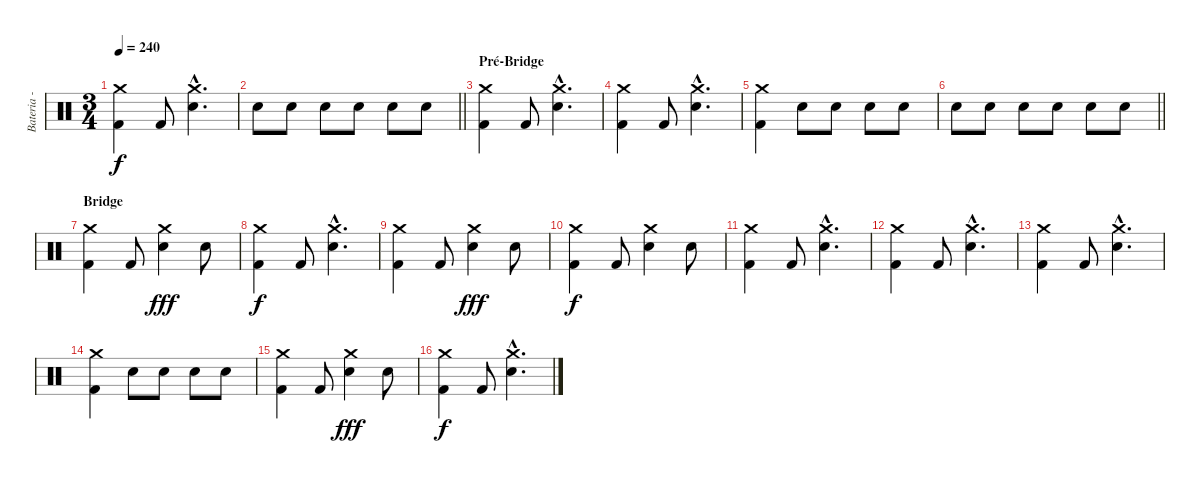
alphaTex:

\track ("Bateria - Larzon" "Bateria - ") {instrument percussion}
\staff {score}
\articulation defaults
\ts (3 4)
\tempo 240
\clef neutral
\ks c
("Kick (hit) 2" "Crash medium (hit)").4{dy f} "Kick (hit) 2".8 ("Snare (hit) 2"{hac} "Crash medium (hit)"{hac}).4{d} |
\barLineRight lightlight "Snare (hit) 2".8 "Snare (hit) 2".8 "Snare (hit) 2".8 "Snare (hit) 2".8 "Snare (hit) 2".8 "Snare (hit) 2".8
|
\section ("" "Pré-Bridge")
("Kick (hit) 2" "Crash medium (hit)").4 "Kick (hit) 2".8 ("Snare (hit) 2"{hac} "Crash medium (hit)"{hac}).4{d} |
("Kick (hit) 2" "Crash medium (hit)").4 "Kick (hit) 2".8 ("Snare (hit) 2"{hac} "Crash medium (hit)"{hac}).4{d} |
("Kick (hit) 2" "Crash medium (hit)").4 "Snare (hit) 2".8 "Snare (hit) 2".8 "Snare (hit) 2".8 "Snare (hit) 2".8 |
\barLineRight lightlight "Snare (hit) 2".8 "Snare (hit) 2".8 "Snare (hit) 2".8 "Snare (hit) 2".8 "Snare (hit) 2".8 "Snare (hit) 2".8
|
\section ("" "Bridge")
("Kick (hit) 2" "Crash medium (hit)").4 "Kick (hit) 2".8 ("Snare (hit) 2" "Crash medium (hit)").4{dy fff} "Snare (hit) 2".8 |
("Kick (hit) 2" "Crash medium (hit)").4{dy f} "Kick (hit) 2".8 ("Snare (hit) 2"{hac} "Crash medium (hit)"{hac}).4{d} |
("Kick (hit) 2" "Crash medium (hit)").4 "Kick (hit) 2".8 ("Snare (hit) 2" "Crash medium (hit)").4{dy fff} "Snare (hit) 2".8 |
("Kick (hit) 2" "Crash medium (hit)").4{dy f} "Kick (hit) 2".8 ("Snare (hit) 2" "Crash medium (hit)").4 "Snare (hit) 2".8 |
("Kick (hit) 2" "Crash medium (hit)").4 "Kick (hit) 2".8 ("Snare (hit) 2"{hac} "Crash medium (hit)"{hac}).4{d} |
("Kick (hit) 2" "Crash medium (hit)").4 "Kick (hit) 2".8 ("Snare (hit) 2"{hac} "Crash medium (hit)"{hac}).4{d} |
("Kick (hit) 2" "Crash medium (hit)").4 "Kick (hit) 2".8 ("Snare (hit) 2"{hac} "Crash medium (hit)"{hac}).4{d} |
("Kick (hit) 2" "Crash medium (hit)").4 "Snare (hit) 2".8 "Snare (hit) 2".8 "Snare (hit) 2".8 "Snare (hit) 2".8 |
("Kick (hit) 2" "Crash medium (hit)").4 "Kick (hit) 2".8 ("Snare (hit) 2" "Crash medium (hit)").4{dy fff} "Snare (hit) 2".8 |
("Kick (hit) 2" "Crash medium (hit)").4{dy f} "Kick (hit) 2".8 ("Snare (hit) 2"{hac} "Crash medium (hit)"{hac}).4{d}
